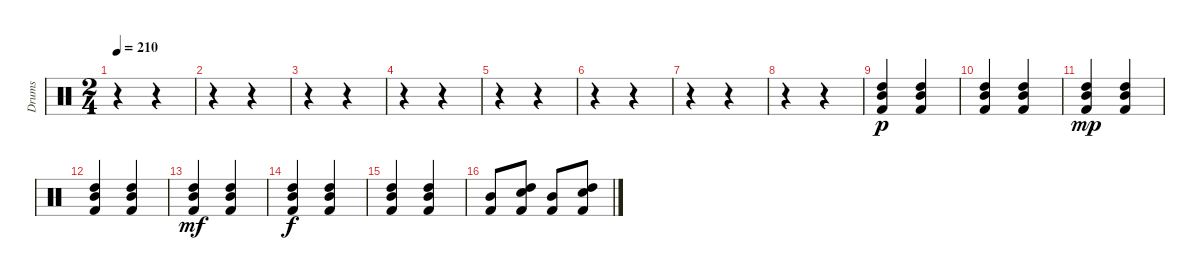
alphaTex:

\track ("Drums" "Drums") {instrument percussion}
\staff {score}
\articulation defaults
\ts (2 4)
\tempo 210
\clef neutral
\ks c
r.4{dy f} r.4 |
r.4 r.4 |
r.4 r.4 |
r.4 r.4 |
r.4 r.4 |
r.4 r.4 |
r.4 r.4 |
r.4 r.4 |
("Mid Tom (hit)" "High Tom (hit)" "Kick (hit) 2").4{dy p} ("Mid Tom (hit)" "High Tom (hit)" "Kick (hit) 2").4 |
("Mid Tom (hit)" "High Tom (hit)" "Kick (hit) 2").4 ("Mid Tom (hit)" "High Tom (hit)" "Kick (hit) 2").4 |
("Mid Tom (hit)" "High Tom (hit)" "Kick (hit) 2").4{dy mp} ("Mid Tom (hit)" "High Tom (hit)" "Kick (hit) 2").4 |
("Mid Tom (hit)" "High Tom (hit)" "Kick (hit) 2").4 ("Mid Tom (hit)" "High Tom (hit)" "Kick (hit) 2").4 |
("Mid Tom (hit)" "High Tom (hit)" "Kick (hit) 2").4{dy mf} ("Mid Tom (hit)" "High Tom (hit)" "Kick (hit) 2").4 |
("Mid Tom (hit)" "High Tom (hit)" "Kick (hit) 2").4{dy f} ("Mid Tom (hit)" "High Tom (hit)" "Kick (hit) 2").4 |
("Mid Tom (hit)" "High Tom (hit)" "Kick (hit) 2").4 ("Mid Tom (hit)" "High Tom (hit)" "Kick (hit) 2").4 |
("Mid Tom (hit)" "Kick (hit) 2").8 ("Electric Snare (hit)" "High Tom (hit)" "Kick (hit) 2").8 ("Mid Tom (hit)" "Kick (hit) 2").8 ("Electric Snare (hit)" "High Tom (hit)" "Kick (hit) 2").8
